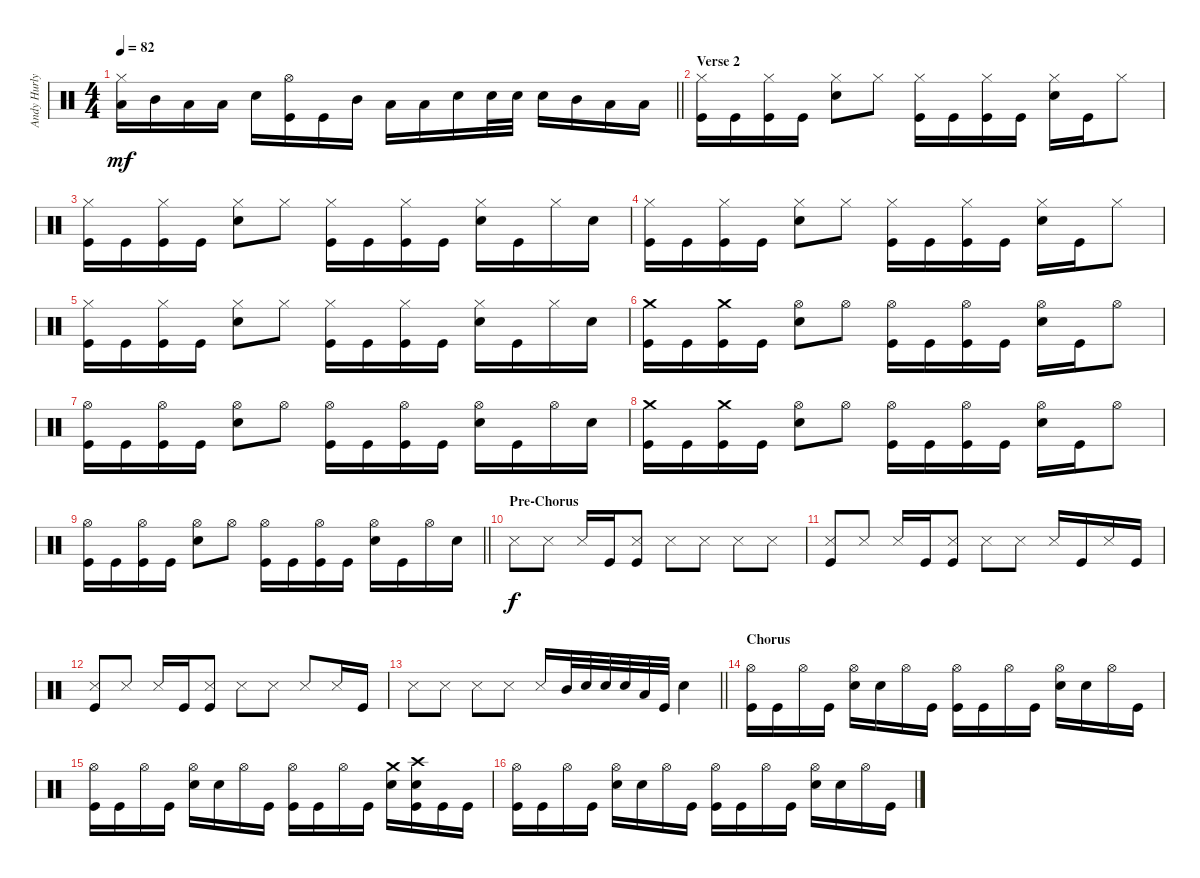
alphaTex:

\track ("Andy Hurly (Drums)" "Andy Hurly") {instrument percussion}
\staff {score}
\articulation defaults
\ts (4 4)
\tempo 82
\clef neutral
\barLineRight lightlight
\ks c
("Low Floor Tom (hit)" "Hi-Hat (closed)").16{dy mf} "Mid Tom (hit)".16 "Low Tom (hit)".16 "Low Floor Tom (hit)".16 "Electric Snare (hit)".16 ("Hi-Hat (open)" "Kick (hit)").16 "Kick (hit)".16 "Mid Tom (hit)".16 "Low Tom (hit)".16 "Low Floor Tom (hit)".16 "Electric Snare (hit)".16 "Electric Snare (hit)".32 "Electric Snare (hit)".32 "Electric Snare (hit)".16 "Mid Tom (hit)".16 "Low Tom (hit)".16 "Low Floor Tom (hit)".16 |
\section ("" "Verse 2")
("Hi-Hat (closed)" "Kick (hit)").16 "Kick (hit)".16 ("Hi-Hat (closed)" "Kick (hit)").16 "Kick (hit)".16 ("Hi-Hat (closed)" "Electric Snare (hit)").8 "Hi-Hat (closed)".8 ("Hi-Hat (closed)" "Kick (hit)").16 "Kick (hit)".16 ("Hi-Hat (closed)" "Kick (hit)").16 "Kick (hit)".16 ("Hi-Hat (closed)" "Electric Snare (hit)").16 "Kick (hit)".16 "Hi-Hat (closed)".8 |
("Hi-Hat (closed)" "Kick (hit)").16 "Kick (hit)".16 ("Hi-Hat (closed)" "Kick (hit)").16 "Kick (hit)".16 ("Hi-Hat (closed)" "Electric Snare (hit)").8 "Hi-Hat (closed)".8 ("Hi-Hat (closed)" "Kick (hit)").16 "Kick (hit)".16 ("Hi-Hat (closed)" "Kick (hit)").16 "Kick (hit)".16 ("Hi-Hat (closed)" "Electric Snare (hit)").16 "Kick (hit)".16 "Hi-Hat (closed)".16 "Electric Snare (hit)".16 |
("Hi-Hat (closed)" "Kick (hit)").16 "Kick (hit)".16 ("Hi-Hat (closed)" "Kick (hit)").16 "Kick (hit)".16 ("Hi-Hat (closed)" "Electric Snare (hit)").8 "Hi-Hat (closed)".8 ("Hi-Hat (closed)" "Kick (hit)").16 "Kick (hit)".16 ("Hi-Hat (closed)" "Kick (hit)").16 "Kick (hit)".16 ("Hi-Hat (closed)" "Electric Snare (hit)").16 "Kick (hit)".16 "Hi-Hat (closed)".8 |
("Hi-Hat (closed)" "Kick (hit)").16 "Kick (hit)".16 ("Hi-Hat (closed)" "Kick (hit)").16 "Kick (hit)".16 ("Hi-Hat (closed)" "Electric Snare (hit)").8 "Hi-Hat (closed)".8 ("Hi-Hat (closed)" "Kick (hit)").16 "Kick (hit)".16 ("Hi-Hat (closed)" "Kick (hit)").16 "Kick (hit)".16 ("Hi-Hat (closed)" "Electric Snare (hit)").16 "Kick (hit)".16 "Hi-Hat (closed)".16 "Electric Snare (hit)".16 |
("Crash medium (hit)" "Kick (hit)").16 "Kick (hit)".16 ("Crash medium (hit)" "Kick (hit)").16 "Kick (hit)".16 ("Hi-Hat (open)" "Electric Snare (hit)").8 "Hi-Hat (open)".8 ("Hi-Hat (open)" "Kick (hit)").16 "Kick (hit)".16 ("Hi-Hat (open)" "Kick (hit)").16 "Kick (hit)".16 ("Hi-Hat (open)" "Electric Snare (hit)").16 "Kick (hit)".16 "Hi-Hat (open)".8 |
("Hi-Hat (open)" "Kick (hit)").16 "Kick (hit)".16 ("Hi-Hat (open)" "Kick (hit)").16 "Kick (hit)".16 ("Hi-Hat (open)" "Electric Snare (hit)").8 "Hi-Hat (open)".8 ("Hi-Hat (open)" "Kick (hit)").16 "Kick (hit)".16 ("Hi-Hat (open)" "Kick (hit)").16 "Kick (hit)".16 ("Hi-Hat (open)" "Electric Snare (hit)").16 "Kick (hit)".16 "Hi-Hat (open)".16 "Electric Snare (hit)".16 |
("Crash medium (hit)" "Kick (hit)").16 "Kick (hit)".16 ("Crash medium (hit)" "Kick (hit)").16 "Kick (hit)".16 ("Hi-Hat (open)" "Electric Snare (hit)").8 "Hi-Hat (open)".8 ("Hi-Hat (open)" "Kick (hit)").16 "Kick (hit)".16 ("Hi-Hat (open)" "Kick (hit)").16 "Kick (hit)".16 ("Hi-Hat (open)" "Electric Snare (hit)").16 "Kick (hit)".16 "Hi-Hat (open)".8 |
\barLineRight lightlight
("Hi-Hat (open)" "Kick (hit)").16 "Kick (hit)".16 ("Hi-Hat (open)" "Kick (hit)").16 "Kick (hit)".16 ("Hi-Hat (open)" "Electric Snare (hit)").8 "Hi-Hat (open)".8 ("Hi-Hat (open)" "Kick (hit)").16 "Kick (hit)".16 ("Hi-Hat (open)" "Kick (hit)").16 "Kick (hit)".16 ("Hi-Hat (open)" "Electric Snare (hit)").16 "Kick (hit)".16 "Hi-Hat (open)".16 "Electric Snare (hit)".16 |
\section ("" "Pre-Chorus")
"Snare (side stick) 3".8{dy f} "Snare (side stick) 3".8 "Snare (side stick) 3".16 "Kick (hit)".16 ("Snare (side stick) 3" "Kick (hit)").8 "Snare (side stick) 3".8 "Snare (side stick) 3".8 "Snare (side stick) 3".8 "Snare (side stick) 3".8 |
("Snare (side stick) 3" "Kick (hit)").8 "Snare (side stick) 3".8 "Snare (side stick) 3".16 "Kick (hit)".16 ("Snare (side stick) 3" "Kick (hit)").8 "Snare (side stick) 3".8 "Snare (side stick) 3".8 "Snare (side stick) 3".16 "Kick (hit)".16 "Snare (side stick) 3".16 "Kick (hit)".16 |
("Snare (side stick) 3" "Kick (hit)").8 "Snare (side stick) 3".8 "Snare (side stick) 3".16 "Kick (hit)".16 ("Snare (side stick) 3" "Kick (hit)").8 "Snare (side stick) 3".8 "Snare (side stick) 3".8 "Snare (side stick) 3".8 "Snare (side stick) 3".16 "Kick (hit)".16 |
\barLineRight lightlight "Snare (side stick) 3".8 "Snare (side stick) 3".8 "Snare (side stick) 3".8 "Snare (side stick) 3".8 "Snare (side stick) 3".16 "Mid Tom (hit)".32 "Electric Snare (hit)".32 "Electric Snare (hit)".32 "Electric Snare (hit)".32 "Low Tom (hit)".32 "Kick (hit)".32 "Electric Snare (hit)".4
|
\section ("" "Chorus")
("Hi-Hat (open)" "Kick (hit)").16 "Kick (hit)".16 "Hi-Hat (open)".16 "Kick (hit)".16 ("Hi-Hat (open)" "Electric Snare (hit)").16 "Electric Snare (hit)".16 "Hi-Hat (open)".16 "Kick (hit)".16 ("Hi-Hat (open)" "Kick (hit)").16 "Kick (hit)".16 "Hi-Hat (open)".16 "Kick (hit)".16 ("Hi-Hat (open)" "Electric Snare (hit)").16 "Electric Snare (hit)".16 "Hi-Hat (open)".16 "Kick (hit)".16 |
("Hi-Hat (open)" "Kick (hit)").16 "Kick (hit)".16 "Hi-Hat (open)".16 "Kick (hit)".16 ("Hi-Hat (open)" "Electric Snare (hit)").16 "Electric Snare (hit)".16 "Hi-Hat (open)".16 "Kick (hit)".16 ("Hi-Hat (open)" "Kick (hit)").16 "Kick (hit)".16 "Hi-Hat (open)".16 "Kick (hit)".16 ("Crash medium (hit)" "Electric Snare (hit)").16 ("Crash high (hit)" "Electric Snare (hit)" "Kick (hit)").16 "Kick (hit)".16 "Kick (hit)".16 |
("Hi-Hat (open)" "Kick (hit)").16 "Kick (hit)".16 "Hi-Hat (open)".16 "Kick (hit)".16 ("Hi-Hat (open)" "Electric Snare (hit)").16 "Electric Snare (hit)".16 "Hi-Hat (open)".16 "Kick (hit)".16 ("Hi-Hat (open)" "Kick (hit)").16 "Kick (hit)".16 "Hi-Hat (open)".16 "Kick (hit)".16 ("Hi-Hat (open)" "Electric Snare (hit)").16 "Electric Snare (hit)".16 "Hi-Hat (open)".16 "Kick (hit)".16
